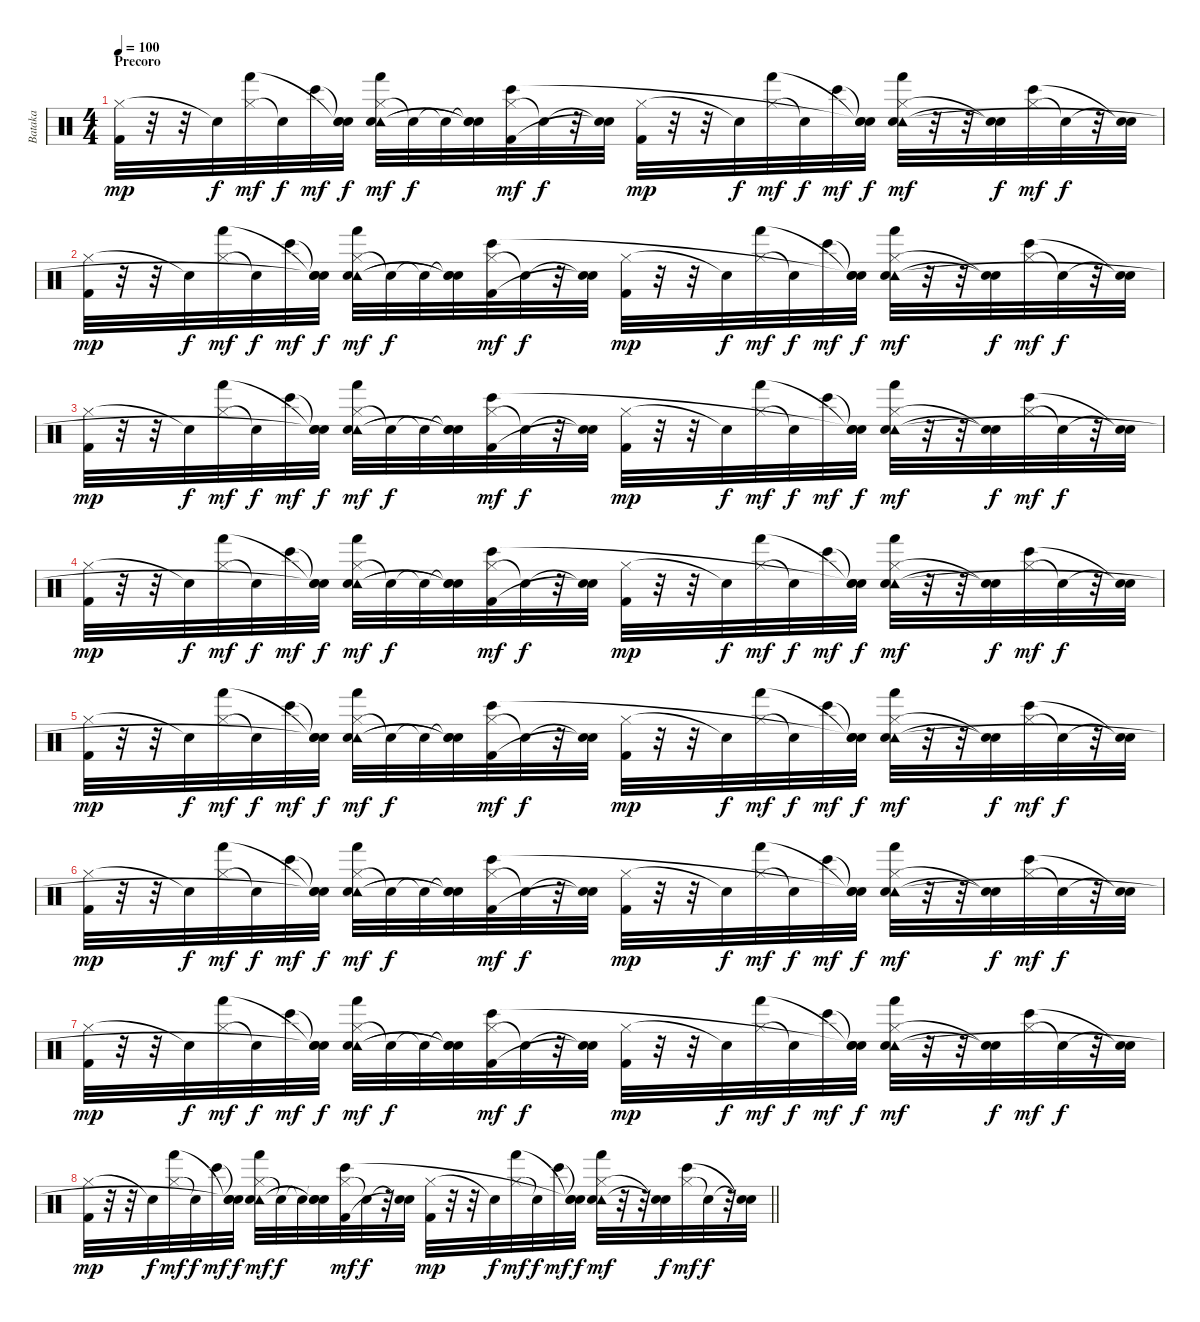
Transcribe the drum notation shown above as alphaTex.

\track ("Bataka" "Bataka") {instrument percussion}
\staff {score}
\articulation defaults
\ts (4 4)
\section ("" "Precoro")
\tempo 100
\clef neutral
\ks c
("Hi-Hat (closed)" "Kick (hit) 2").32{dy mp} r.32 r.32 "Snare (hit)"{t}.32{dy f} ("Hi-Hat (closed)" "Hand (hit)").32{dy mf} "Snare (hit)"{t}.32{dy f} "Bongo High (hit)".32{dy mf} ("Snare (hit)"{t} "Snare (hit)"{t} "Snare (hit)"{t}).32{dy f} ("Hi-Hat (closed)" "Tambourine (hit)" "Electric Snare (hit)" "Hand (hit)").32{dy mf} "Snare (hit)"{t}.32{dy f} "Snare (hit)"{t}.32 ("Snare (hit)"{t} "Snare (hit)"{t} "Snare (hit)"{t}).32 ("Hi-Hat (closed)" "Kick (hit) 2" "Bongo High (hit)").32{dy mf} "Snare (hit)"{t}.32{dy f} r.32 ("Snare (hit)"{t} "Snare (hit)"{t}).32 ("Hi-Hat (closed)" "Kick (hit) 2").32{dy mp} r.32 r.32 "Snare (hit)"{t}.32{dy f} ("Hi-Hat (closed)" "Hand (hit)").32{dy mf} "Snare (hit)"{t}.32{dy f} "Bongo High (hit)".32{dy mf} ("Snare (hit)"{t} "Snare (hit)"{t} "Snare (hit)"{t}).32{dy f} ("Hi-Hat (closed)" "Tambourine (hit)" "Electric Snare (hit)" "Hand (hit)").32{dy mf} r.32 r.32 ("Snare (hit)"{t} "Snare (hit)"{t}).32{dy f} ("Hi-Hat (closed)" "Bongo High (hit)").32{dy mf} "Snare (hit)"{t}.32{dy f} r.32 ("Snare (hit)"{t} "Snare (hit)"{t}).32 |
("Hi-Hat (closed)" "Kick (hit) 2").32{dy mp} r.32 r.32 "Snare (hit)"{t}.32{dy f} ("Hi-Hat (closed)" "Hand (hit)").32{dy mf} "Snare (hit)"{t}.32{dy f} "Bongo High (hit)".32{dy mf} ("Snare (hit)"{t} "Snare (hit)"{t} "Snare (hit)"{t}).32{dy f} ("Hi-Hat (closed)" "Tambourine (hit)" "Electric Snare (hit)" "Hand (hit)").32{dy mf} "Snare (hit)"{t}.32{dy f} "Snare (hit)"{t}.32 ("Snare (hit)"{t} "Snare (hit)"{t} "Snare (hit)"{t}).32 ("Hi-Hat (closed)" "Kick (hit) 2" "Bongo High (hit)").32{dy mf} "Snare (hit)"{t}.32{dy f} r.32 ("Snare (hit)"{t} "Snare (hit)"{t}).32 ("Hi-Hat (closed)" "Kick (hit) 2").32{dy mp} r.32 r.32 "Snare (hit)"{t}.32{dy f} ("Hi-Hat (closed)" "Hand (hit)").32{dy mf} "Snare (hit)"{t}.32{dy f} "Bongo High (hit)".32{dy mf} ("Snare (hit)"{t} "Snare (hit)"{t} "Snare (hit)"{t}).32{dy f} ("Hi-Hat (closed)" "Tambourine (hit)" "Electric Snare (hit)" "Hand (hit)").32{dy mf} r.32 r.32 ("Snare (hit)"{t} "Snare (hit)"{t}).32{dy f} ("Hi-Hat (closed)" "Bongo High (hit)").32{dy mf} "Snare (hit)"{t}.32{dy f} r.32 ("Snare (hit)"{t} "Snare (hit)"{t}).32 |
("Hi-Hat (closed)" "Kick (hit) 2").32{dy mp} r.32 r.32 "Snare (hit)"{t}.32{dy f} ("Hi-Hat (closed)" "Hand (hit)").32{dy mf} "Snare (hit)"{t}.32{dy f} "Bongo High (hit)".32{dy mf} ("Snare (hit)"{t} "Snare (hit)"{t} "Snare (hit)"{t}).32{dy f} ("Hi-Hat (closed)" "Tambourine (hit)" "Electric Snare (hit)" "Hand (hit)").32{dy mf} "Snare (hit)"{t}.32{dy f} "Snare (hit)"{t}.32 ("Snare (hit)"{t} "Snare (hit)"{t} "Snare (hit)"{t}).32 ("Hi-Hat (closed)" "Kick (hit) 2" "Bongo High (hit)").32{dy mf} "Snare (hit)"{t}.32{dy f} r.32 ("Snare (hit)"{t} "Snare (hit)"{t}).32 ("Hi-Hat (closed)" "Kick (hit) 2").32{dy mp} r.32 r.32 "Snare (hit)"{t}.32{dy f} ("Hi-Hat (closed)" "Hand (hit)").32{dy mf} "Snare (hit)"{t}.32{dy f} "Bongo High (hit)".32{dy mf} ("Snare (hit)"{t} "Snare (hit)"{t} "Snare (hit)"{t}).32{dy f} ("Hi-Hat (closed)" "Tambourine (hit)" "Electric Snare (hit)" "Hand (hit)").32{dy mf} r.32 r.32 ("Snare (hit)"{t} "Snare (hit)"{t}).32{dy f} ("Hi-Hat (closed)" "Bongo High (hit)").32{dy mf} "Snare (hit)"{t}.32{dy f} r.32 ("Snare (hit)"{t} "Snare (hit)"{t}).32 |
("Hi-Hat (closed)" "Kick (hit) 2").32{dy mp} r.32 r.32 "Snare (hit)"{t}.32{dy f} ("Hi-Hat (closed)" "Hand (hit)").32{dy mf} "Snare (hit)"{t}.32{dy f} "Bongo High (hit)".32{dy mf} ("Snare (hit)"{t} "Snare (hit)"{t} "Snare (hit)"{t}).32{dy f} ("Hi-Hat (closed)" "Tambourine (hit)" "Electric Snare (hit)" "Hand (hit)").32{dy mf} "Snare (hit)"{t}.32{dy f} "Snare (hit)"{t}.32 ("Snare (hit)"{t} "Snare (hit)"{t} "Snare (hit)"{t}).32 ("Hi-Hat (closed)" "Kick (hit) 2" "Bongo High (hit)").32{dy mf} "Snare (hit)"{t}.32{dy f} r.32 ("Snare (hit)"{t} "Snare (hit)"{t}).32 ("Hi-Hat (closed)" "Kick (hit) 2").32{dy mp} r.32 r.32 "Snare (hit)"{t}.32{dy f} ("Hi-Hat (closed)" "Hand (hit)").32{dy mf} "Snare (hit)"{t}.32{dy f} "Bongo High (hit)".32{dy mf} ("Snare (hit)"{t} "Snare (hit)"{t} "Snare (hit)"{t}).32{dy f} ("Hi-Hat (closed)" "Tambourine (hit)" "Electric Snare (hit)" "Hand (hit)").32{dy mf} r.32 r.32 ("Snare (hit)"{t} "Snare (hit)"{t}).32{dy f} ("Hi-Hat (closed)" "Bongo High (hit)").32{dy mf} "Snare (hit)"{t}.32{dy f} r.32 ("Snare (hit)"{t} "Snare (hit)"{t}).32 |
("Hi-Hat (closed)" "Kick (hit) 2").32{dy mp} r.32 r.32 "Snare (hit)"{t}.32{dy f} ("Hi-Hat (closed)" "Hand (hit)").32{dy mf} "Snare (hit)"{t}.32{dy f} "Bongo High (hit)".32{dy mf} ("Snare (hit)"{t} "Snare (hit)"{t} "Snare (hit)"{t}).32{dy f} ("Hi-Hat (closed)" "Tambourine (hit)" "Electric Snare (hit)" "Hand (hit)").32{dy mf} "Snare (hit)"{t}.32{dy f} "Snare (hit)"{t}.32 ("Snare (hit)"{t} "Snare (hit)"{t} "Snare (hit)"{t}).32 ("Hi-Hat (closed)" "Kick (hit) 2" "Bongo High (hit)").32{dy mf} "Snare (hit)"{t}.32{dy f} r.32 ("Snare (hit)"{t} "Snare (hit)"{t}).32 ("Hi-Hat (closed)" "Kick (hit) 2").32{dy mp} r.32 r.32 "Snare (hit)"{t}.32{dy f} ("Hi-Hat (closed)" "Hand (hit)").32{dy mf} "Snare (hit)"{t}.32{dy f} "Bongo High (hit)".32{dy mf} ("Snare (hit)"{t} "Snare (hit)"{t} "Snare (hit)"{t}).32{dy f} ("Hi-Hat (closed)" "Tambourine (hit)" "Electric Snare (hit)" "Hand (hit)").32{dy mf} r.32 r.32 ("Snare (hit)"{t} "Snare (hit)"{t}).32{dy f} ("Hi-Hat (closed)" "Bongo High (hit)").32{dy mf} "Snare (hit)"{t}.32{dy f} r.32 ("Snare (hit)"{t} "Snare (hit)"{t}).32 |
("Hi-Hat (closed)" "Kick (hit) 2").32{dy mp} r.32 r.32 "Snare (hit)"{t}.32{dy f} ("Hi-Hat (closed)" "Hand (hit)").32{dy mf} "Snare (hit)"{t}.32{dy f} "Bongo High (hit)".32{dy mf} ("Snare (hit)"{t} "Snare (hit)"{t} "Snare (hit)"{t}).32{dy f} ("Hi-Hat (closed)" "Tambourine (hit)" "Electric Snare (hit)" "Hand (hit)").32{dy mf} "Snare (hit)"{t}.32{dy f} "Snare (hit)"{t}.32 ("Snare (hit)"{t} "Snare (hit)"{t} "Snare (hit)"{t}).32 ("Hi-Hat (closed)" "Kick (hit) 2" "Bongo High (hit)").32{dy mf} "Snare (hit)"{t}.32{dy f} r.32 ("Snare (hit)"{t} "Snare (hit)"{t}).32 ("Hi-Hat (closed)" "Kick (hit) 2").32{dy mp} r.32 r.32 "Snare (hit)"{t}.32{dy f} ("Hi-Hat (closed)" "Hand (hit)").32{dy mf} "Snare (hit)"{t}.32{dy f} "Bongo High (hit)".32{dy mf} ("Snare (hit)"{t} "Snare (hit)"{t} "Snare (hit)"{t}).32{dy f} ("Hi-Hat (closed)" "Tambourine (hit)" "Electric Snare (hit)" "Hand (hit)").32{dy mf} r.32 r.32 ("Snare (hit)"{t} "Snare (hit)"{t}).32{dy f} ("Hi-Hat (closed)" "Bongo High (hit)").32{dy mf} "Snare (hit)"{t}.32{dy f} r.32 ("Snare (hit)"{t} "Snare (hit)"{t}).32 |
("Hi-Hat (closed)" "Kick (hit) 2").32{dy mp} r.32 r.32 "Snare (hit)"{t}.32{dy f} ("Hi-Hat (closed)" "Hand (hit)").32{dy mf} "Snare (hit)"{t}.32{dy f} "Bongo High (hit)".32{dy mf} ("Snare (hit)"{t} "Snare (hit)"{t} "Snare (hit)"{t}).32{dy f} ("Hi-Hat (closed)" "Tambourine (hit)" "Electric Snare (hit)" "Hand (hit)").32{dy mf} "Snare (hit)"{t}.32{dy f} "Snare (hit)"{t}.32 ("Snare (hit)"{t} "Snare (hit)"{t} "Snare (hit)"{t}).32 ("Hi-Hat (closed)" "Kick (hit) 2" "Bongo High (hit)").32{dy mf} "Snare (hit)"{t}.32{dy f} r.32 ("Snare (hit)"{t} "Snare (hit)"{t}).32 ("Hi-Hat (closed)" "Kick (hit) 2").32{dy mp} r.32 r.32 "Snare (hit)"{t}.32{dy f} ("Hi-Hat (closed)" "Hand (hit)").32{dy mf} "Snare (hit)"{t}.32{dy f} "Bongo High (hit)".32{dy mf} ("Snare (hit)"{t} "Snare (hit)"{t} "Snare (hit)"{t}).32{dy f} ("Hi-Hat (closed)" "Tambourine (hit)" "Electric Snare (hit)" "Hand (hit)").32{dy mf} r.32 r.32 ("Snare (hit)"{t} "Snare (hit)"{t}).32{dy f} ("Hi-Hat (closed)" "Bongo High (hit)").32{dy mf} "Snare (hit)"{t}.32{dy f} r.32 ("Snare (hit)"{t} "Snare (hit)"{t}).32 |
\barLineRight lightlight
("Hi-Hat (closed)" "Kick (hit) 2").32{dy mp} r.32 r.32 "Snare (hit)"{t}.32{dy f} ("Hi-Hat (closed)" "Hand (hit)").32{dy mf} "Snare (hit)"{t}.32{dy f} "Bongo High (hit)".32{dy mf} ("Snare (hit)"{t} "Snare (hit)"{t} "Snare (hit)"{t}).32{dy f} ("Hi-Hat (closed)" "Tambourine (hit)" "Electric Snare (hit)" "Hand (hit)").32{dy mf} "Snare (hit)"{t}.32{dy f} "Snare (hit)"{t}.32 ("Snare (hit)"{t} "Snare (hit)"{t} "Snare (hit)"{t}).32 ("Hi-Hat (closed)" "Kick (hit) 2" "Bongo High (hit)").32{dy mf} "Snare (hit)"{t}.32{dy f} r.32 ("Snare (hit)"{t} "Snare (hit)"{t}).32 ("Hi-Hat (closed)" "Kick (hit) 2").32{dy mp} r.32 r.32 "Snare (hit)"{t}.32{dy f} ("Hi-Hat (closed)" "Hand (hit)").32{dy mf} "Snare (hit)"{t}.32{dy f} "Bongo High (hit)".32{dy mf} ("Snare (hit)"{t} "Snare (hit)"{t} "Snare (hit)"{t}).32{dy f} ("Hi-Hat (closed)" "Tambourine (hit)" "Electric Snare (hit)" "Hand (hit)").32{dy mf} r.32 r.32 ("Snare (hit)"{t} "Snare (hit)"{t}).32{dy f} ("Hi-Hat (closed)" "Bongo High (hit)").32{dy mf} "Snare (hit)"{t}.32{dy f} r.32 ("Snare (hit)"{t} "Snare (hit)"{t}).32
